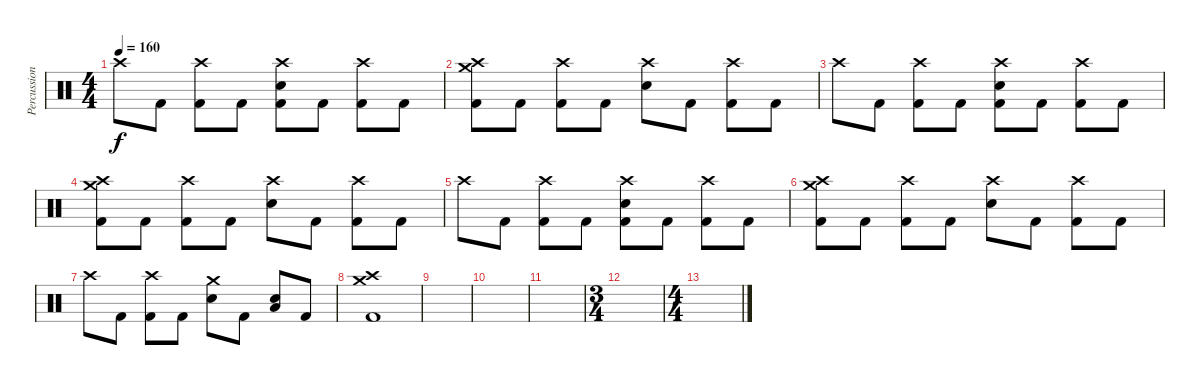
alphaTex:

\track ("Percussion" "Percussion") {instrument percussion}
\staff {score}
\articulation defaults
\ts (4 4)
\tempo 160
\clef neutral
\ks c "Crash high (hit)".8{dy f} "Kick (hit) 2".8
("Crash high (hit)" "Kick (hit) 2").8 "Kick (hit) 2".8 ("Crash high (hit)" "Electric Snare (hit)" "Kick (hit) 2").8 "Kick (hit) 2".8 ("Crash high (hit)" "Kick (hit) 2").8 "Kick (hit) 2".8 |
("Crash high (hit)" "Crash medium (hit)" "Kick (hit) 2").8 "Kick (hit) 2".8 ("Crash high (hit)" "Kick (hit) 2").8 "Kick (hit) 2".8 ("Crash high (hit)" "Electric Snare (hit)").8 "Kick (hit) 2".8 ("Crash high (hit)" "Kick (hit) 2").8 "Kick (hit) 2".8 |
"Crash high (hit)".8 "Kick (hit) 2".8 ("Crash high (hit)" "Kick (hit) 2").8 "Kick (hit) 2".8 ("Crash high (hit)" "Electric Snare (hit)" "Kick (hit) 2").8 "Kick (hit) 2".8 ("Crash high (hit)" "Kick (hit) 2").8 "Kick (hit) 2".8 |
("Crash high (hit)" "Crash medium (hit)" "Kick (hit) 2").8 "Kick (hit) 2".8 ("Crash high (hit)" "Kick (hit) 2").8 "Kick (hit) 2".8 ("Crash high (hit)" "Electric Snare (hit)").8 "Kick (hit) 2".8 ("Crash high (hit)" "Kick (hit) 2").8 "Kick (hit) 2".8 |
"Crash high (hit)".8 "Kick (hit) 2".8 ("Crash high (hit)" "Kick (hit) 2").8 "Kick (hit) 2".8 ("Crash high (hit)" "Electric Snare (hit)" "Kick (hit) 2").8 "Kick (hit) 2".8 ("Crash high (hit)" "Kick (hit) 2").8 "Kick (hit) 2".8 |
("Crash high (hit)" "Crash medium (hit)" "Kick (hit) 2").8 "Kick (hit) 2".8 ("Crash high (hit)" "Kick (hit) 2").8 "Kick (hit) 2".8 ("Crash high (hit)" "Electric Snare (hit)").8 "Kick (hit) 2".8 ("Crash high (hit)" "Kick (hit) 2").8 "Kick (hit) 2".8 |
"Crash high (hit)".8 "Kick (hit) 2".8 ("Crash high (hit)" "Kick (hit) 2").8 "Kick (hit) 2".8 ("Crash medium (hit)" "Electric Snare (hit)").8 "Kick (hit) 2".8 ("Low Tom (hit)" "Electric Snare (hit)").8 "Kick (hit) 2".8 |
("Crash high (hit)" "Crash medium (hit)" "Kick (hit) 2").1 |
|
|
|
\ts (3 4)
|
\ts (4 4)
